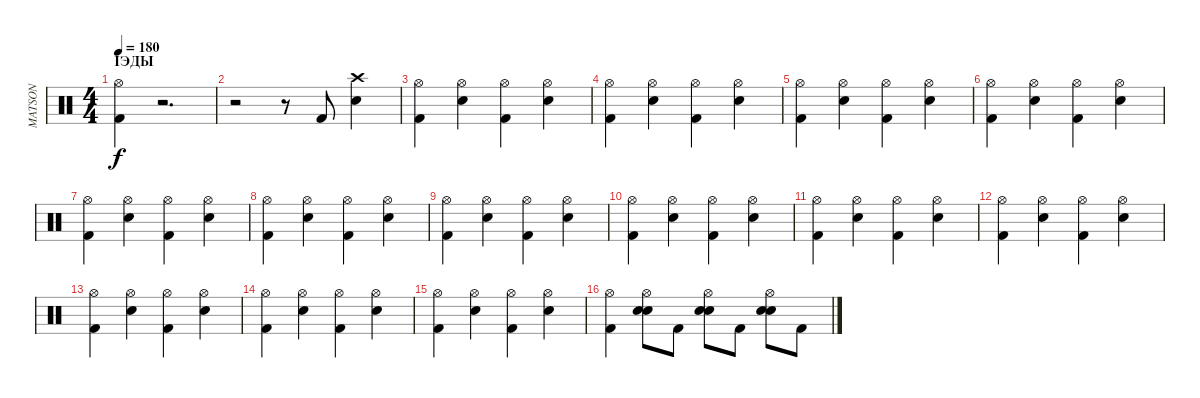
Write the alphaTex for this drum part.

\track ("MATSON" "MATSON") {instrument percussion}
\staff {score}
\articulation defaults
\ts (4 4)
\section ("" "ІЭДЫ")
\tempo 180
\clef neutral
\ks c
("Hi-Hat (open)" "Kick (hit) 2").4{dy f} r.2{d} |
r.2 r.8 "Kick (hit) 2".8 ("Crash high (hit)" "Snare (hit) 2").4 |
("Hi-Hat (open)" "Kick (hit) 2").4 ("Hi-Hat (open)" "Snare (hit) 2").4 ("Hi-Hat (open)" "Kick (hit) 2").4 ("Hi-Hat (open)" "Snare (hit) 2").4 |
("Hi-Hat (open)" "Kick (hit) 2").4 ("Hi-Hat (open)" "Snare (hit) 2").4 ("Hi-Hat (open)" "Kick (hit) 2").4 ("Hi-Hat (open)" "Snare (hit) 2").4 |
("Hi-Hat (open)" "Kick (hit) 2").4 ("Hi-Hat (open)" "Snare (hit) 2").4 ("Hi-Hat (open)" "Kick (hit) 2").4 ("Hi-Hat (open)" "Snare (hit) 2").4 |
("Hi-Hat (open)" "Kick (hit) 2").4 ("Hi-Hat (open)" "Snare (hit) 2").4 ("Hi-Hat (open)" "Kick (hit) 2").4 ("Hi-Hat (open)" "Snare (hit) 2").4 |
("Hi-Hat (open)" "Kick (hit) 2").4 ("Hi-Hat (open)" "Snare (hit) 2").4 ("Hi-Hat (open)" "Kick (hit) 2").4 ("Hi-Hat (open)" "Snare (hit) 2").4 |
("Hi-Hat (open)" "Kick (hit) 2").4 ("Hi-Hat (open)" "Snare (hit) 2").4 ("Hi-Hat (open)" "Kick (hit) 2").4 ("Hi-Hat (open)" "Snare (hit) 2").4 |
("Hi-Hat (open)" "Kick (hit) 2").4 ("Hi-Hat (open)" "Snare (hit) 2").4 ("Hi-Hat (open)" "Kick (hit) 2").4 ("Hi-Hat (open)" "Snare (hit) 2").4 |
("Hi-Hat (open)" "Kick (hit) 2").4 ("Hi-Hat (open)" "Snare (hit) 2").4 ("Hi-Hat (open)" "Kick (hit) 2").4 ("Hi-Hat (open)" "Snare (hit) 2").4 |
("Hi-Hat (open)" "Kick (hit) 2").4 ("Hi-Hat (open)" "Snare (hit) 2").4 ("Hi-Hat (open)" "Kick (hit) 2").4 ("Hi-Hat (open)" "Snare (hit) 2").4 |
("Hi-Hat (open)" "Kick (hit) 2").4 ("Hi-Hat (open)" "Snare (hit) 2").4 ("Hi-Hat (open)" "Kick (hit) 2").4 ("Hi-Hat (open)" "Snare (hit) 2").4 |
("Hi-Hat (open)" "Kick (hit) 2").4 ("Hi-Hat (open)" "Snare (hit) 2").4 ("Hi-Hat (open)" "Kick (hit) 2").4 ("Hi-Hat (open)" "Snare (hit) 2").4 |
("Hi-Hat (open)" "Kick (hit) 2").4 ("Hi-Hat (open)" "Snare (hit) 2").4 ("Hi-Hat (open)" "Kick (hit) 2").4 ("Hi-Hat (open)" "Snare (hit) 2").4 |
("Hi-Hat (open)" "Kick (hit) 2").4 ("Hi-Hat (open)" "Snare (hit) 2").4 ("Hi-Hat (open)" "Kick (hit) 2").4 ("Hi-Hat (open)" "Snare (hit) 2").4 |
("Hi-Hat (open)" "Kick (hit) 2").4 ("Hi-Hat (open)" "Electric Snare (hit)" "Snare (hit) 2").8 "Kick (hit) 2".8 ("Hi-Hat (open)" "Electric Snare (hit)" "Snare (hit) 2").8 "Kick (hit) 2".8 ("Hi-Hat (open)" "Electric Snare (hit)" "Snare (hit) 2").8 "Kick (hit) 2".8
